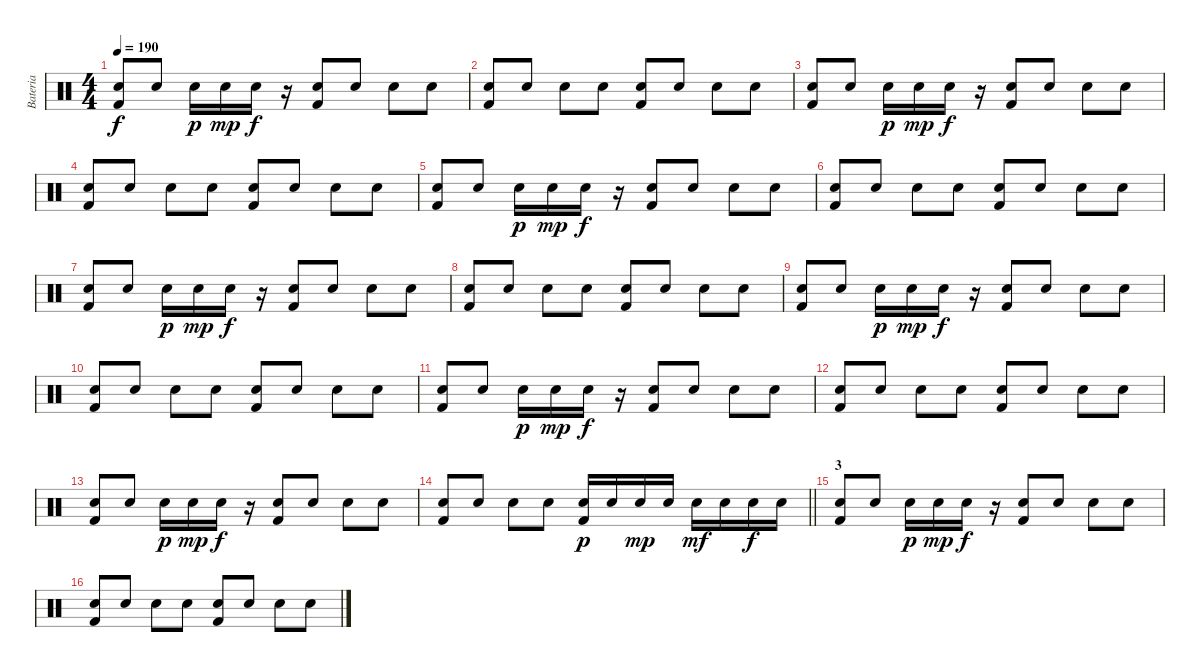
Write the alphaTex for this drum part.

\track ("Bateria" "Bateria") {instrument percussion}
\staff {score}
\articulation defaults
\ts (4 4)
\tempo 190
\clef neutral
\ks c
("Electric Snare (hit)" "Kick (hit) 2").8{dy f} "Snare (hit)".8 "Electric Snare (hit)".16{dy p} "Electric Snare (hit)".16{dy mp} "Electric Snare (hit)".16{dy f} r.16 ("Electric Snare (hit)" "Kick (hit) 2").8 "Snare (hit)".8 "Electric Snare (hit)".8 "Snare (hit)".8 |
("Electric Snare (hit)" "Kick (hit) 2").8 "Electric Snare (hit)".8 "Electric Snare (hit)".8 "Snare (hit)".8 ("Electric Snare (hit)" "Kick (hit) 2").8 "Snare (hit)".8 "Electric Snare (hit)".8 "Electric Snare (hit)".8 |
("Electric Snare (hit)" "Kick (hit) 2").8 "Snare (hit)".8 "Electric Snare (hit)".16{dy p} "Electric Snare (hit)".16{dy mp} "Electric Snare (hit)".16{dy f} r.16 ("Electric Snare (hit)" "Kick (hit) 2").8 "Snare (hit)".8 "Electric Snare (hit)".8 "Snare (hit)".8 |
("Electric Snare (hit)" "Kick (hit) 2").8 "Electric Snare (hit)".8 "Electric Snare (hit)".8 "Snare (hit)".8 ("Electric Snare (hit)" "Kick (hit) 2").8 "Snare (hit)".8 "Electric Snare (hit)".8 "Electric Snare (hit)".8 |
("Electric Snare (hit)" "Kick (hit) 2").8 "Snare (hit)".8 "Electric Snare (hit)".16{dy p} "Electric Snare (hit)".16{dy mp} "Electric Snare (hit)".16{dy f} r.16 ("Electric Snare (hit)" "Kick (hit) 2").8 "Snare (hit)".8 "Electric Snare (hit)".8 "Snare (hit)".8 |
("Electric Snare (hit)" "Kick (hit) 2").8 "Electric Snare (hit)".8 "Electric Snare (hit)".8 "Snare (hit)".8 ("Electric Snare (hit)" "Kick (hit) 2").8 "Snare (hit)".8 "Electric Snare (hit)".8 "Electric Snare (hit)".8 |
("Electric Snare (hit)" "Kick (hit) 2").8 "Snare (hit)".8 "Electric Snare (hit)".16{dy p} "Electric Snare (hit)".16{dy mp} "Electric Snare (hit)".16{dy f} r.16 ("Electric Snare (hit)" "Kick (hit) 2").8 "Snare (hit)".8 "Electric Snare (hit)".8 "Snare (hit)".8 |
("Electric Snare (hit)" "Kick (hit) 2").8 "Electric Snare (hit)".8 "Electric Snare (hit)".8 "Snare (hit)".8 ("Electric Snare (hit)" "Kick (hit) 2").8 "Snare (hit)".8 "Electric Snare (hit)".8 "Electric Snare (hit)".8 |
("Electric Snare (hit)" "Kick (hit) 2").8 "Snare (hit)".8 "Electric Snare (hit)".16{dy p} "Electric Snare (hit)".16{dy mp} "Electric Snare (hit)".16{dy f} r.16 ("Electric Snare (hit)" "Kick (hit) 2").8 "Snare (hit)".8 "Electric Snare (hit)".8 "Snare (hit)".8 |
("Electric Snare (hit)" "Kick (hit) 2").8 "Electric Snare (hit)".8 "Electric Snare (hit)".8 "Snare (hit)".8 ("Electric Snare (hit)" "Kick (hit) 2").8 "Snare (hit)".8 "Electric Snare (hit)".8 "Electric Snare (hit)".8 |
("Electric Snare (hit)" "Kick (hit) 2").8 "Snare (hit)".8 "Electric Snare (hit)".16{dy p} "Electric Snare (hit)".16{dy mp} "Electric Snare (hit)".16{dy f} r.16 ("Electric Snare (hit)" "Kick (hit) 2").8 "Snare (hit)".8 "Electric Snare (hit)".8 "Snare (hit)".8 |
("Electric Snare (hit)" "Kick (hit) 2").8 "Electric Snare (hit)".8 "Electric Snare (hit)".8 "Snare (hit)".8 ("Electric Snare (hit)" "Kick (hit) 2").8 "Snare (hit)".8 "Electric Snare (hit)".8 "Electric Snare (hit)".8 |
("Electric Snare (hit)" "Kick (hit) 2").8 "Snare (hit)".8 "Electric Snare (hit)".16{dy p} "Electric Snare (hit)".16{dy mp} "Electric Snare (hit)".16{dy f} r.16 ("Electric Snare (hit)" "Kick (hit) 2").8 "Snare (hit)".8 "Electric Snare (hit)".8 "Snare (hit)".8 |
\barLineRight lightlight
("Electric Snare (hit)" "Kick (hit) 2").8 "Electric Snare (hit)".8 "Electric Snare (hit)".8 "Snare (hit)".8 ("Electric Snare (hit)" "Kick (hit) 2").16{dy p} "Electric Snare (hit)".16 "Electric Snare (hit)".16{dy mp} "Electric Snare (hit)".16 "Electric Snare (hit)".16{dy mf} "Electric Snare (hit)".16 "Electric Snare (hit)".16{dy f} "Electric Snare (hit)".16 |
\section ("" "3 ")
("Electric Snare (hit)" "Kick (hit) 2").8 "Snare (hit)".8 "Electric Snare (hit)".16{dy p} "Electric Snare (hit)".16{dy mp} "Electric Snare (hit)".16{dy f} r.16 ("Electric Snare (hit)" "Kick (hit) 2").8 "Snare (hit)".8 "Electric Snare (hit)".8 "Snare (hit)".8 |
("Electric Snare (hit)" "Kick (hit) 2").8 "Electric Snare (hit)".8 "Electric Snare (hit)".8 "Snare (hit)".8 ("Electric Snare (hit)" "Kick (hit) 2").8 "Snare (hit)".8 "Electric Snare (hit)".8 "Electric Snare (hit)".8
